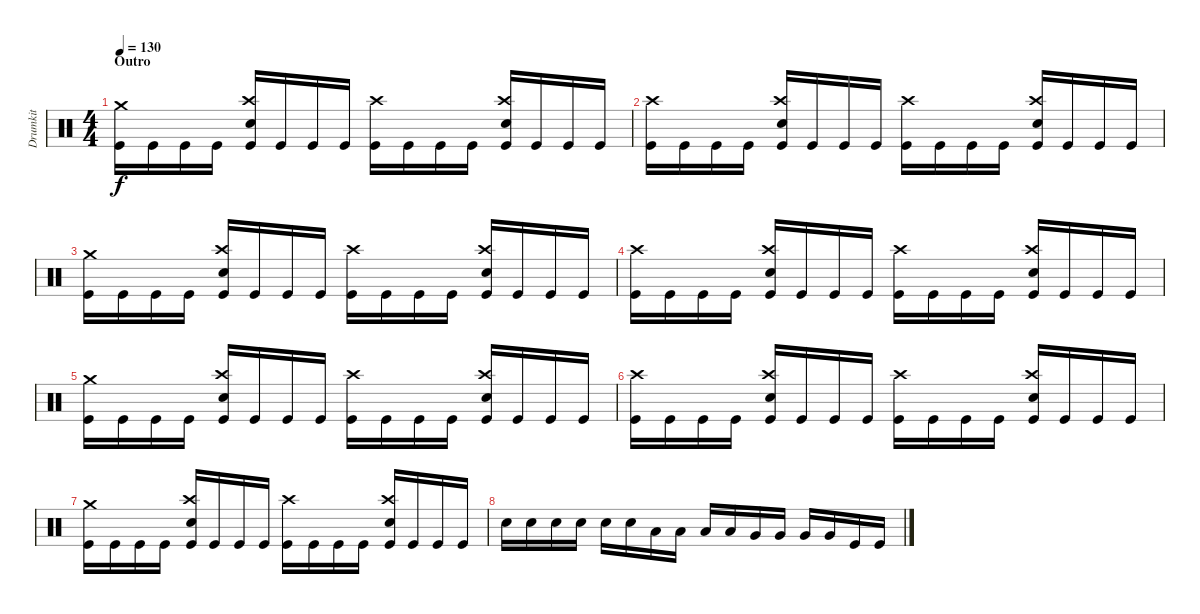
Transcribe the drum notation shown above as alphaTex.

\track ("Drumkit" "Drumkit") {instrument percussion}
\staff {score}
\articulation defaults
\ts (4 4)
\section ("" "Outro")
\tempo 130
\clef neutral
\ks c
("Crash medium (hit)" "Kick (hit)").16{dy f} "Kick (hit)".16 "Kick (hit)".16 "Kick (hit)".16 ("Crash high (hit)" "Electric Snare (hit)" "Kick (hit)").16 "Kick (hit)".16 "Kick (hit)".16 "Kick (hit)".16 ("Crash high (hit)" "Kick (hit)").16 "Kick (hit)".16 "Kick (hit)".16 "Kick (hit)".16 ("Crash high (hit)" "Electric Snare (hit)" "Kick (hit)").16 "Kick (hit)".16 "Kick (hit)".16 "Kick (hit)".16 |
("Crash high (hit)" "Kick (hit)").16 "Kick (hit)".16 "Kick (hit)".16 "Kick (hit)".16 ("Crash high (hit)" "Electric Snare (hit)" "Kick (hit)").16 "Kick (hit)".16 "Kick (hit)".16 "Kick (hit)".16 ("Crash high (hit)" "Kick (hit)").16 "Kick (hit)".16 "Kick (hit)".16 "Kick (hit)".16 ("Crash high (hit)" "Electric Snare (hit)" "Kick (hit)").16 "Kick (hit)".16 "Kick (hit)".16 "Kick (hit)".16 |
("Crash medium (hit)" "Kick (hit)").16 "Kick (hit)".16 "Kick (hit)".16 "Kick (hit)".16 ("Crash high (hit)" "Electric Snare (hit)" "Kick (hit)").16 "Kick (hit)".16 "Kick (hit)".16 "Kick (hit)".16 ("Crash high (hit)" "Kick (hit)").16 "Kick (hit)".16 "Kick (hit)".16 "Kick (hit)".16 ("Crash high (hit)" "Electric Snare (hit)" "Kick (hit)").16 "Kick (hit)".16 "Kick (hit)".16 "Kick (hit)".16 |
("Crash high (hit)" "Kick (hit)").16 "Kick (hit)".16 "Kick (hit)".16 "Kick (hit)".16 ("Crash high (hit)" "Electric Snare (hit)" "Kick (hit)").16 "Kick (hit)".16 "Kick (hit)".16 "Kick (hit)".16 ("Crash high (hit)" "Kick (hit)").16 "Kick (hit)".16 "Kick (hit)".16 "Kick (hit)".16 ("Crash high (hit)" "Electric Snare (hit)" "Kick (hit)").16 "Kick (hit)".16 "Kick (hit)".16 "Kick (hit)".16 |
("Crash medium (hit)" "Kick (hit)").16 "Kick (hit)".16 "Kick (hit)".16 "Kick (hit)".16 ("Crash high (hit)" "Electric Snare (hit)" "Kick (hit)").16 "Kick (hit)".16 "Kick (hit)".16 "Kick (hit)".16 ("Crash high (hit)" "Kick (hit)").16 "Kick (hit)".16 "Kick (hit)".16 "Kick (hit)".16 ("Crash high (hit)" "Electric Snare (hit)" "Kick (hit)").16 "Kick (hit)".16 "Kick (hit)".16 "Kick (hit)".16 |
("Crash high (hit)" "Kick (hit)").16 "Kick (hit)".16 "Kick (hit)".16 "Kick (hit)".16 ("Crash high (hit)" "Electric Snare (hit)" "Kick (hit)").16 "Kick (hit)".16 "Kick (hit)".16 "Kick (hit)".16 ("Crash high (hit)" "Kick (hit)").16 "Kick (hit)".16 "Kick (hit)".16 "Kick (hit)".16 ("Crash high (hit)" "Electric Snare (hit)" "Kick (hit)").16 "Kick (hit)".16 "Kick (hit)".16 "Kick (hit)".16 |
("Crash medium (hit)" "Kick (hit)").16 "Kick (hit)".16 "Kick (hit)".16 "Kick (hit)".16 ("Crash high (hit)" "Electric Snare (hit)" "Kick (hit)").16 "Kick (hit)".16 "Kick (hit)".16 "Kick (hit)".16 ("Crash high (hit)" "Kick (hit)").16 "Kick (hit)".16 "Kick (hit)".16 "Kick (hit)".16 ("Crash high (hit)" "Electric Snare (hit)" "Kick (hit)").16 "Kick (hit)".16 "Kick (hit)".16 "Kick (hit)".16 |
"Electric Snare (hit)".16 "Electric Snare (hit)".16 "Electric Snare (hit)".16 "Electric Snare (hit)".16 "Electric Snare (hit)".16 "Electric Snare (hit)".16 "Low Tom (hit)".16 "Low Tom (hit)".16 "Low Tom (hit)".16 "Low Tom (hit)".16 "Very Low Tom (hit)".16 "Very Low Tom (hit)".16 "Very Low Tom (hit)".16 "Very Low Tom (hit)".16 "Kick (hit)".16 "Kick (hit)".16
